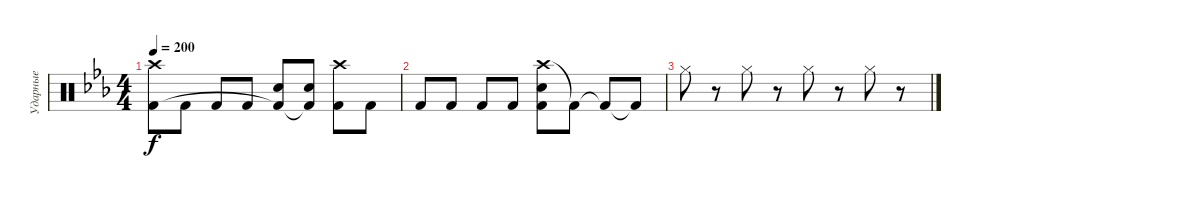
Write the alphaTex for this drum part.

\track ("Ударные" "Ударные") {instrument percussion}
\staff {score}
\articulation defaults
\ts (4 4)
\tempo 200
\clef neutral
\ks cminor
("Crash high (hit)" "Kick (hit) 2").8{dy f} "Kick (hit) 2".8 "Kick (hit) 2".8 "Kick (hit) 2".8 ("Electric Snare (hit)" "Kick (hit) 2"{t}).8 ("Electric Snare (hit)" "Kick (hit) 2"{t}).8 ("Crash high (hit)" "Kick (hit) 2").8 "Kick (hit) 2".8 |
"Kick (hit) 2".8 "Kick (hit) 2".8 "Kick (hit) 2".8 "Kick (hit) 2".8 ("Crash high (hit)" "Electric Snare (hit)" "Kick (hit) 2").8 "Kick (hit) 2"{t}.8 "Kick (hit) 2"{t}.8 "Kick (hit) 2"{t}.8 |
"Hi-Hat (closed)".8 r.8 "Hi-Hat (closed)".8 r.8 "Hi-Hat (closed)".8 r.8 "Hi-Hat (closed)".8 r.8
